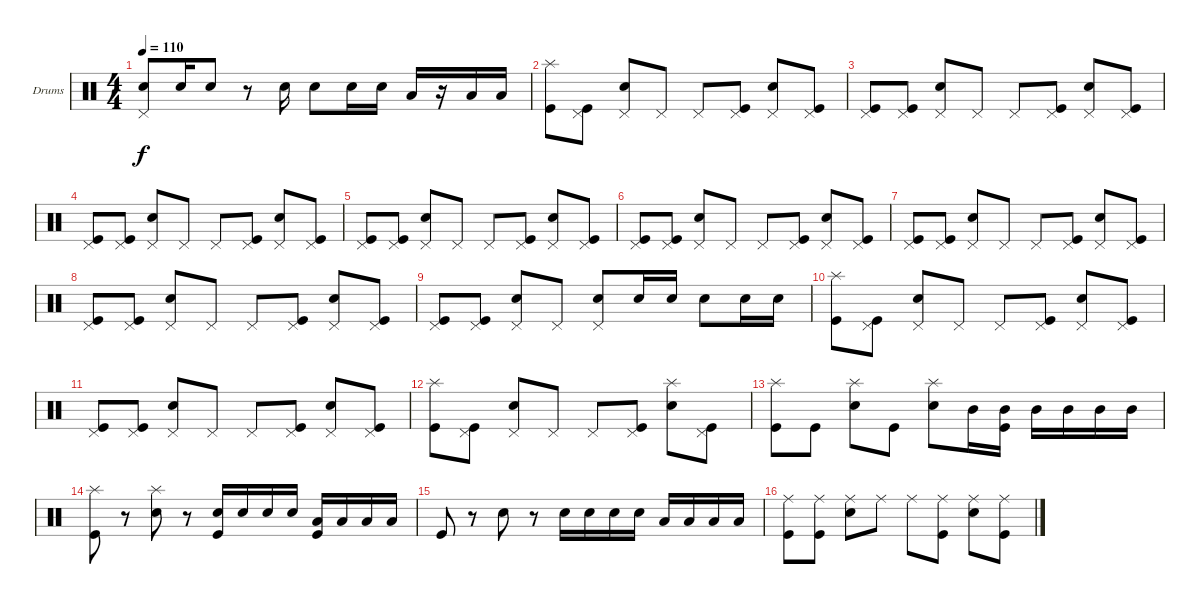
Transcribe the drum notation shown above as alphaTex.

\defaultSystemsLayout 4
\bracketExtendMode groupsimilarinstruments
\firstSystemTrackNameOrientation horizontal
\otherSystemsTrackNameOrientation horizontal
\track ("Drumkit" "Drums") {instrument percussion}
\staff {score}
\articulation defaults
\ts (4 4)
\tempo 110
\clef neutral
\ks c
("Pedal Hi-Hat (hit)" "Snare (hit) 2").8{dy f} "Snare (hit) 2".16 "Snare (hit) 2".8 r.8 "Snare (hit) 2".16 "Snare (hit) 2".8 "Snare (hit) 2".16 "Snare (hit) 2".16 "Low Tom (hit)".16 r.16 "Low Tom (hit)".16 "Low Tom (hit)".16 |
("Kick (hit)" "Splash (hit)").8 ("Pedal Hi-Hat (hit)" "Kick (hit)").8 ("Pedal Hi-Hat (hit)" "Snare (hit) 2").8 "Pedal Hi-Hat (hit)".8 "Pedal Hi-Hat (hit)".8 ("Pedal Hi-Hat (hit)" "Kick (hit)").8 ("Pedal Hi-Hat (hit)" "Snare (hit) 2").8 ("Pedal Hi-Hat (hit)" "Kick (hit)").8 |
("Pedal Hi-Hat (hit)" "Kick (hit)").8 ("Pedal Hi-Hat (hit)" "Kick (hit)").8 ("Pedal Hi-Hat (hit)" "Snare (hit) 2").8 "Pedal Hi-Hat (hit)".8 "Pedal Hi-Hat (hit)".8 ("Pedal Hi-Hat (hit)" "Kick (hit)").8 ("Pedal Hi-Hat (hit)" "Snare (hit) 2").8 ("Pedal Hi-Hat (hit)" "Kick (hit)").8 |
("Pedal Hi-Hat (hit)" "Kick (hit)").8 ("Pedal Hi-Hat (hit)" "Kick (hit)").8 ("Pedal Hi-Hat (hit)" "Snare (hit) 2").8 "Pedal Hi-Hat (hit)".8 "Pedal Hi-Hat (hit)".8 ("Pedal Hi-Hat (hit)" "Kick (hit)").8 ("Pedal Hi-Hat (hit)" "Snare (hit) 2").8 ("Pedal Hi-Hat (hit)" "Kick (hit)").8 |
("Pedal Hi-Hat (hit)" "Kick (hit)").8 ("Pedal Hi-Hat (hit)" "Kick (hit)").8 ("Pedal Hi-Hat (hit)" "Snare (hit) 2").8 "Pedal Hi-Hat (hit)".8 "Pedal Hi-Hat (hit)".8 ("Pedal Hi-Hat (hit)" "Kick (hit)").8 ("Pedal Hi-Hat (hit)" "Snare (hit) 2").8 ("Pedal Hi-Hat (hit)" "Kick (hit)").8 |
("Pedal Hi-Hat (hit)" "Kick (hit)").8 ("Pedal Hi-Hat (hit)" "Kick (hit)").8 ("Pedal Hi-Hat (hit)" "Snare (hit) 2").8 "Pedal Hi-Hat (hit)".8 "Pedal Hi-Hat (hit)".8 ("Pedal Hi-Hat (hit)" "Kick (hit)").8 ("Pedal Hi-Hat (hit)" "Snare (hit) 2").8 ("Pedal Hi-Hat (hit)" "Kick (hit)").8 |
("Pedal Hi-Hat (hit)" "Kick (hit)").8 ("Pedal Hi-Hat (hit)" "Kick (hit)").8 ("Pedal Hi-Hat (hit)" "Snare (hit) 2").8 "Pedal Hi-Hat (hit)".8 "Pedal Hi-Hat (hit)".8 ("Pedal Hi-Hat (hit)" "Kick (hit)").8 ("Pedal Hi-Hat (hit)" "Snare (hit) 2").8 ("Pedal Hi-Hat (hit)" "Kick (hit)").8 |
("Pedal Hi-Hat (hit)" "Kick (hit)").8 ("Pedal Hi-Hat (hit)" "Kick (hit)").8 ("Pedal Hi-Hat (hit)" "Snare (hit) 2").8 "Pedal Hi-Hat (hit)".8 "Pedal Hi-Hat (hit)".8 ("Pedal Hi-Hat (hit)" "Kick (hit)").8 ("Pedal Hi-Hat (hit)" "Snare (hit) 2").8 ("Pedal Hi-Hat (hit)" "Kick (hit)").8 |
("Pedal Hi-Hat (hit)" "Kick (hit)").8 ("Pedal Hi-Hat (hit)" "Kick (hit)").8 ("Pedal Hi-Hat (hit)" "Snare (hit) 2").8 "Pedal Hi-Hat (hit)".8 ("Pedal Hi-Hat (hit)" "Snare (hit) 2").8 "Snare (hit) 2".16 "Snare (hit) 2".16 "Snare (hit) 2".8 "Snare (hit) 2".16 "Snare (hit) 2".16 |
("Kick (hit)" "Splash (hit)").8 ("Pedal Hi-Hat (hit)" "Kick (hit)").8 ("Pedal Hi-Hat (hit)" "Snare (hit) 2").8 "Pedal Hi-Hat (hit)".8 "Pedal Hi-Hat (hit)".8 ("Pedal Hi-Hat (hit)" "Kick (hit)").8 ("Pedal Hi-Hat (hit)" "Snare (hit) 2").8 ("Pedal Hi-Hat (hit)" "Kick (hit)").8 |
("Pedal Hi-Hat (hit)" "Kick (hit)").8 ("Pedal Hi-Hat (hit)" "Kick (hit)").8 ("Pedal Hi-Hat (hit)" "Snare (hit) 2").8 "Pedal Hi-Hat (hit)".8 "Pedal Hi-Hat (hit)".8 ("Pedal Hi-Hat (hit)" "Kick (hit)").8 ("Pedal Hi-Hat (hit)" "Snare (hit) 2").8 ("Pedal Hi-Hat (hit)" "Kick (hit)").8 |
("Kick (hit)" "Splash (hit)").8 ("Pedal Hi-Hat (hit)" "Kick (hit)").8 ("Pedal Hi-Hat (hit)" "Snare (hit) 2").8 "Pedal Hi-Hat (hit)".8 "Pedal Hi-Hat (hit)".8 ("Pedal Hi-Hat (hit)" "Kick (hit)").8 ("Snare (hit) 2" "Splash (hit)").8 ("Pedal Hi-Hat (hit)" "Kick (hit)").8 |
("Kick (hit)" "Splash (hit)").8 "Kick (hit)".8 ("Snare (hit) 2" "Splash (hit)").8 "Kick (hit)".8 ("Snare (hit) 2" "Splash (hit)").8 "Mid Tom (hit)".16 ("Mid Tom (hit)" "Kick (hit)").16 "Mid Tom (hit)".16 "Mid Tom (hit)".16 "Mid Tom (hit)".16 "Mid Tom (hit)".16 |
("Splash (hit)" "Kick (hit)").8 r.8 ("Splash (hit)" "Snare (hit) 2").8 r.8 ("Kick (hit)" "Snare (hit) 2").16 "Snare (hit) 2".16 "Snare (hit) 2".16 "Snare (hit) 2".16 ("Kick (hit)" "Low Tom (hit)").16 "Low Tom (hit)".16 "Low Tom (hit)".16 "Low Tom (hit)".16 |
"Kick (hit)".8 r.8 "Snare (hit) 2".8 r.8 "Snare (hit) 2".16 "Snare (hit) 2".16 "Snare (hit) 2".16 "Snare (hit) 2".16 "Low Tom (hit)".16 "Low Tom (hit)".16 "Low Tom (hit)".16 "Low Tom (hit)".16 |
("Kick (hit)" "Ride (middle)").8 ("Kick (hit)" "Ride (middle)").8 ("Snare (hit) 2" "Ride (middle)").8 "Ride (middle)".8 "Ride (middle)".8 ("Kick (hit)" "Ride (middle)").8 ("Snare (hit) 2" "Ride (middle)").8 ("Kick (hit)" "Ride (middle)").8
